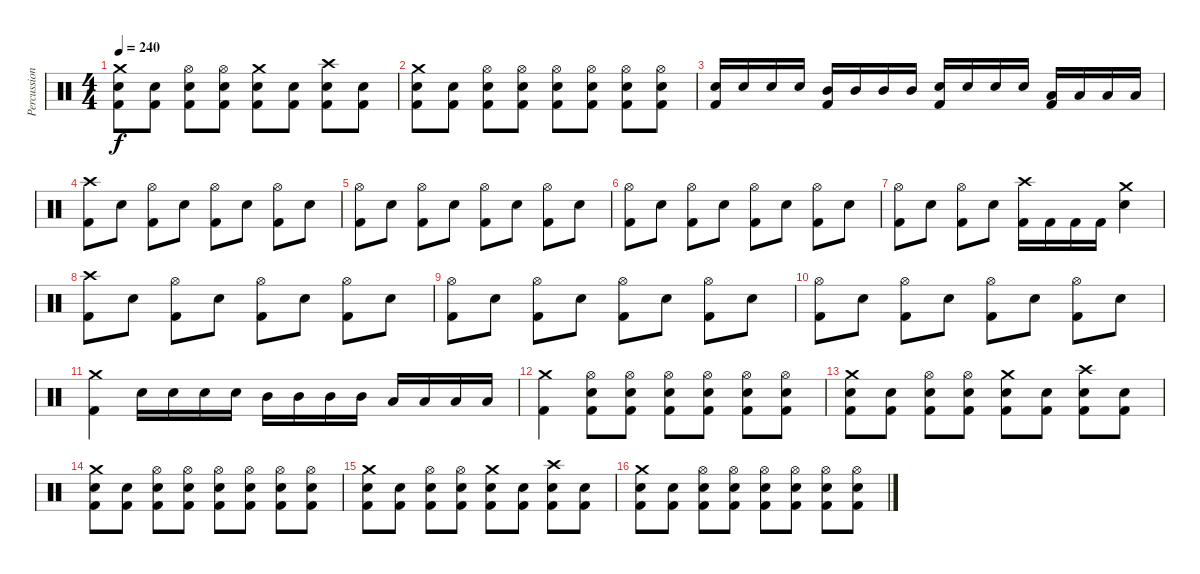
\track ("Percussion" "Percussion") {solo instrument percussion}
\staff {score}
\articulation defaults
\ts (4 4)
\tempo 240
\clef neutral
\ks c
("Crash medium (hit)" "Electric Snare (hit)" "Kick (hit) 2").8{dy f} ("Electric Snare (hit)" "Kick (hit) 2").8 ("Hi-Hat (open)" "Electric Snare (hit)" "Kick (hit) 2").8 ("Hi-Hat (open)" "Electric Snare (hit)" "Kick (hit) 2").8 ("Crash medium (hit)" "Electric Snare (hit)" "Kick (hit) 2").8 ("Electric Snare (hit)" "Kick (hit) 2").8 ("Crash high (hit)" "Electric Snare (hit)" "Kick (hit) 2").8 ("Electric Snare (hit)" "Kick (hit) 2").8 |
("Crash medium (hit)" "Electric Snare (hit)" "Kick (hit) 2").8 ("Electric Snare (hit)" "Kick (hit) 2").8 ("Hi-Hat (open)" "Electric Snare (hit)" "Kick (hit) 2").8 ("Hi-Hat (open)" "Electric Snare (hit)" "Kick (hit) 2").8 ("Hi-Hat (open)" "Electric Snare (hit)" "Kick (hit) 2").8 ("Hi-Hat (open)" "Electric Snare (hit)" "Kick (hit) 2").8 ("Hi-Hat (open)" "Electric Snare (hit)" "Kick (hit) 2").8 ("Hi-Hat (open)" "Electric Snare (hit)" "Kick (hit) 2").8 |
("Electric Snare (hit)" "Kick (hit) 2").16 "Electric Snare (hit)".16 "Electric Snare (hit)".16 "Electric Snare (hit)".16 ("Mid Tom (hit)" "Kick (hit) 2").16 "Mid Tom (hit)".16 "Mid Tom (hit)".16 "Mid Tom (hit)".16 ("Electric Snare (hit)" "Kick (hit) 2").16 "Electric Snare (hit)".16 "Electric Snare (hit)".16 "Electric Snare (hit)".16 ("Low Tom (hit)" "Kick (hit) 2").16 "Low Tom (hit)".16 "Low Tom (hit)".16 "Low Tom (hit)".16 |
("Crash high (hit)" "Kick (hit) 2").8 "Electric Snare (hit)".8 ("Hi-Hat (open)" "Kick (hit) 2").8 "Electric Snare (hit)".8 ("Hi-Hat (open)" "Kick (hit) 2").8 "Electric Snare (hit)".8 ("Hi-Hat (open)" "Kick (hit) 2").8 "Electric Snare (hit)".8 |
("Hi-Hat (open)" "Kick (hit) 2").8 "Electric Snare (hit)".8 ("Hi-Hat (open)" "Kick (hit) 2").8 "Electric Snare (hit)".8 ("Hi-Hat (open)" "Kick (hit) 2").8 "Electric Snare (hit)".8 ("Hi-Hat (open)" "Kick (hit) 2").8 "Electric Snare (hit)".8 |
("Hi-Hat (open)" "Kick (hit) 2").8 "Electric Snare (hit)".8 ("Hi-Hat (open)" "Kick (hit) 2").8 "Electric Snare (hit)".8 ("Hi-Hat (open)" "Kick (hit) 2").8 "Electric Snare (hit)".8 ("Hi-Hat (open)" "Kick (hit) 2").8 "Electric Snare (hit)".8 |
("Hi-Hat (open)" "Kick (hit) 2").8 "Electric Snare (hit)".8 ("Hi-Hat (open)" "Kick (hit) 2").8 "Electric Snare (hit)".8 ("Crash high (hit)" "Kick (hit) 2").16 "Kick (hit) 2".16 "Kick (hit) 2".16 "Kick (hit) 2".16 ("Crash medium (hit)" "Electric Snare (hit)").4 |
("Crash high (hit)" "Kick (hit) 2").8 "Electric Snare (hit)".8 ("Hi-Hat (open)" "Kick (hit) 2").8 "Electric Snare (hit)".8 ("Hi-Hat (open)" "Kick (hit) 2").8 "Electric Snare (hit)".8 ("Hi-Hat (open)" "Kick (hit) 2").8 "Electric Snare (hit)".8 |
("Hi-Hat (open)" "Kick (hit) 2").8 "Electric Snare (hit)".8 ("Hi-Hat (open)" "Kick (hit) 2").8 "Electric Snare (hit)".8 ("Hi-Hat (open)" "Kick (hit) 2").8 "Electric Snare (hit)".8 ("Hi-Hat (open)" "Kick (hit) 2").8 "Electric Snare (hit)".8 |
("Hi-Hat (open)" "Kick (hit) 2").8 "Electric Snare (hit)".8 ("Hi-Hat (open)" "Kick (hit) 2").8 "Electric Snare (hit)".8 ("Hi-Hat (open)" "Kick (hit) 2").8 "Electric Snare (hit)".8 ("Hi-Hat (open)" "Kick (hit) 2").8 "Electric Snare (hit)".8 |
("Crash medium (hit)" "Kick (hit) 2").4 "Electric Snare (hit)".16 "Electric Snare (hit)".16 "Electric Snare (hit)".16 "Electric Snare (hit)".16 "Mid Tom (hit)".16 "Mid Tom (hit)".16 "Mid Tom (hit)".16 "Mid Tom (hit)".16 "Low Tom (hit)".16 "Low Tom (hit)".16 "Low Tom (hit)".16 "Low Tom (hit)".16 |
("Crash medium (hit)" "Kick (hit) 2").4 ("Hi-Hat (open)" "Electric Snare (hit)" "Kick (hit) 2").8 ("Hi-Hat (open)" "Electric Snare (hit)" "Kick (hit) 2").8 ("Hi-Hat (open)" "Electric Snare (hit)" "Kick (hit) 2").8 ("Hi-Hat (open)" "Electric Snare (hit)" "Kick (hit) 2").8 ("Hi-Hat (open)" "Electric Snare (hit)" "Kick (hit) 2").8 ("Hi-Hat (open)" "Electric Snare (hit)" "Kick (hit) 2").8 |
("Crash medium (hit)" "Electric Snare (hit)" "Kick (hit) 2").8 ("Electric Snare (hit)" "Kick (hit) 2").8 ("Hi-Hat (open)" "Electric Snare (hit)" "Kick (hit) 2").8 ("Hi-Hat (open)" "Electric Snare (hit)" "Kick (hit) 2").8 ("Crash medium (hit)" "Electric Snare (hit)" "Kick (hit) 2").8 ("Electric Snare (hit)" "Kick (hit) 2").8 ("Crash high (hit)" "Electric Snare (hit)" "Kick (hit) 2").8 ("Electric Snare (hit)" "Kick (hit) 2").8 |
("Crash medium (hit)" "Electric Snare (hit)" "Kick (hit) 2").8 ("Electric Snare (hit)" "Kick (hit) 2").8 ("Hi-Hat (open)" "Electric Snare (hit)" "Kick (hit) 2").8 ("Hi-Hat (open)" "Electric Snare (hit)" "Kick (hit) 2").8 ("Hi-Hat (open)" "Electric Snare (hit)" "Kick (hit) 2").8 ("Hi-Hat (open)" "Electric Snare (hit)" "Kick (hit) 2").8 ("Hi-Hat (open)" "Electric Snare (hit)" "Kick (hit) 2").8 ("Hi-Hat (open)" "Electric Snare (hit)" "Kick (hit) 2").8 |
("Crash medium (hit)" "Electric Snare (hit)" "Kick (hit) 2").8 ("Electric Snare (hit)" "Kick (hit) 2").8 ("Hi-Hat (open)" "Electric Snare (hit)" "Kick (hit) 2").8 ("Hi-Hat (open)" "Electric Snare (hit)" "Kick (hit) 2").8 ("Crash medium (hit)" "Electric Snare (hit)" "Kick (hit) 2").8 ("Electric Snare (hit)" "Kick (hit) 2").8 ("Crash high (hit)" "Electric Snare (hit)" "Kick (hit) 2").8 ("Electric Snare (hit)" "Kick (hit) 2").8 |
("Crash medium (hit)" "Electric Snare (hit)" "Kick (hit) 2").8 ("Electric Snare (hit)" "Kick (hit) 2").8 ("Hi-Hat (open)" "Electric Snare (hit)" "Kick (hit) 2").8 ("Hi-Hat (open)" "Electric Snare (hit)" "Kick (hit) 2").8 ("Hi-Hat (open)" "Electric Snare (hit)" "Kick (hit) 2").8 ("Hi-Hat (open)" "Electric Snare (hit)" "Kick (hit) 2").8 ("Hi-Hat (open)" "Electric Snare (hit)" "Kick (hit) 2").8 ("Hi-Hat (open)" "Electric Snare (hit)" "Kick (hit) 2").8
